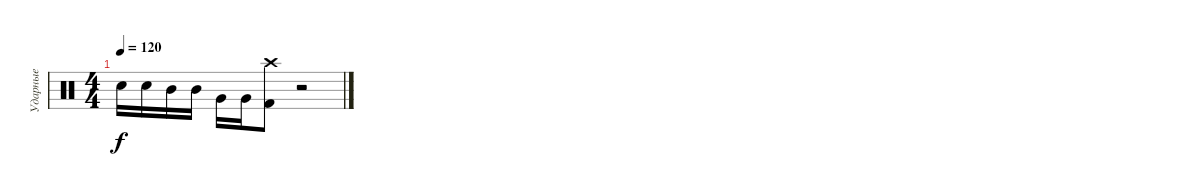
\track ("Ударные" "Ударные") {instrument percussion}
\staff {score}
\articulation defaults
\ts (4 4)
\tempo 120
\clef neutral
\ks c "Snare (hit) 2".16{dy f} "Snare (hit) 2".16 "Mid Tom (hit)".16 "Mid Tom (hit)".16 "Very Low Tom (hit)".16 "Very Low Tom (hit)".16
("Kick (hit) 2" "Crash high (hit)").8 r.2
